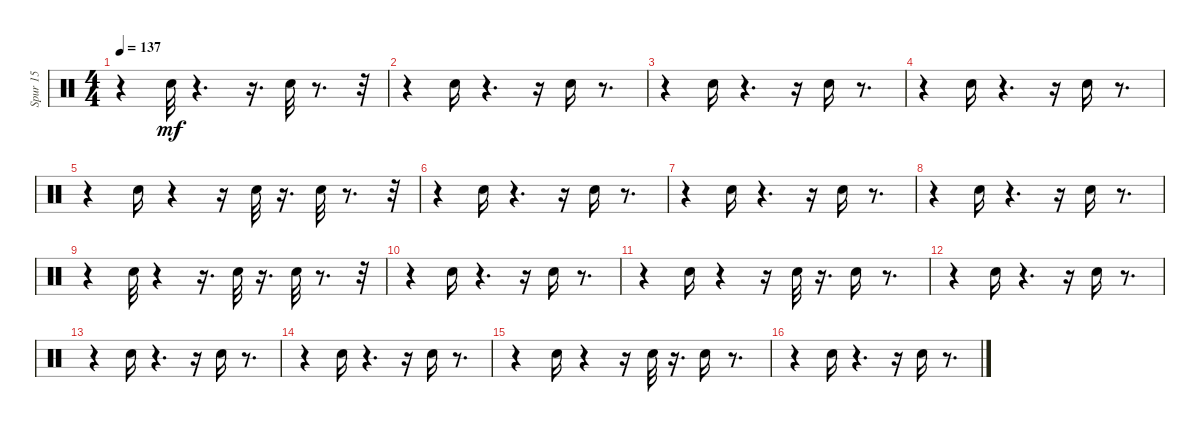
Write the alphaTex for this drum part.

\track ("Spur 15" "Spur 15") {instrument percussion}
\staff {score}
\articulation defaults
\ts (4 4)
\tempo 137
\clef neutral
\ks c
r.4{dy mf} "Hand Clap (hit)".32 r.4{d} r.16{d} "Hand Clap (hit)".32 r.8{d} r.32 |
r.4 "Hand Clap (hit)".16 r.4{d} r.16 "Hand Clap (hit)".16 r.8{d} |
r.4 "Hand Clap (hit)".16 r.4{d} r.16 "Hand Clap (hit)".16 r.8{d} |
r.4 "Hand Clap (hit)".16 r.4{d} r.16 "Hand Clap (hit)".16 r.8{d} |
r.4 "Hand Clap (hit)".16 r.4 r.16 "Hand Clap (hit)".32 r.16{d} "Hand Clap (hit)".32 r.8{d} r.32 |
r.4 "Hand Clap (hit)".16 r.4{d} r.16 "Hand Clap (hit)".16 r.8{d} |
r.4 "Hand Clap (hit)".16 r.4{d} r.16 "Hand Clap (hit)".16 r.8{d} |
r.4 "Hand Clap (hit)".16 r.4{d} r.16 "Hand Clap (hit)".16 r.8{d} |
r.4 "Hand Clap (hit)".32 r.4 r.16{d} "Hand Clap (hit)".32 r.16{d} "Hand Clap (hit)".32 r.8{d} r.32 |
r.4 "Hand Clap (hit)".16 r.4{d} r.16 "Hand Clap (hit)".16 r.8{d} |
r.4 "Hand Clap (hit)".16 r.4 r.16 "Hand Clap (hit)".32 r.16{d} "Hand Clap (hit)".16 r.8{d} |
r.4 "Hand Clap (hit)".16 r.4{d} r.16 "Hand Clap (hit)".16 r.8{d} |
r.4 "Hand Clap (hit)".16 r.4{d} r.16 "Hand Clap (hit)".16 r.8{d} |
r.4 "Hand Clap (hit)".16 r.4{d} r.16 "Hand Clap (hit)".16 r.8{d} |
r.4 "Hand Clap (hit)".16 r.4 r.16 "Hand Clap (hit)".32 r.16{d} "Hand Clap (hit)".16 r.8{d} |
r.4 "Hand Clap (hit)".16 r.4{d} r.16 "Hand Clap (hit)".16 r.8{d}
